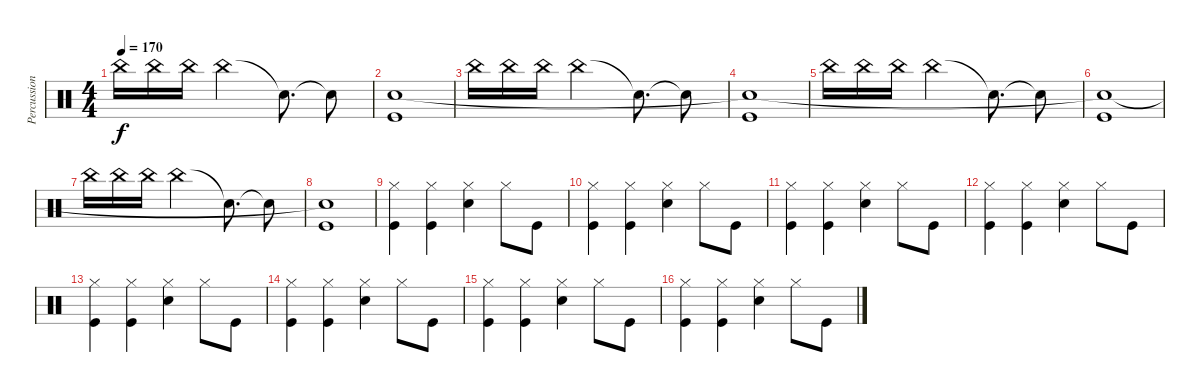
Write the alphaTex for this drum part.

\track ("Percussion" "Percussion") {instrument percussion}
\staff {score}
\articulation defaults
\ts (4 4)
\tempo 170
\clef neutral
\ks c "China (hit)".16{dy f} "China (hit)".16 "China (hit)".16 "China (hit)".2 "Snare (hit)"{t}.8{d} "Snare (hit)"{t}.8
|
("Kick (hit)" "Snare (hit)"{t}).1 |
"China (hit)".16 "China (hit)".16 "China (hit)".16 "China (hit)".2 "Snare (hit)"{t}.8{d} "Snare (hit)"{t}.8 |
("Kick (hit)" "Snare (hit)"{t}).1 |
"China (hit)".16 "China (hit)".16 "China (hit)".16 "China (hit)".2 "Snare (hit)"{t}.8{d} "Snare (hit)"{t}.8 |
("Kick (hit)" "Snare (hit)"{t}).1 |
"China (hit)".16 "China (hit)".16 "China (hit)".16 "China (hit)".2 "Snare (hit)"{t}.8{d} "Snare (hit)"{t}.8 |
("Kick (hit)" "Snare (hit)"{t}).1 |
("Hi-Hat (closed)" "Kick (hit)").4 ("Hi-Hat (closed)" "Kick (hit)").4 ("Hi-Hat (closed)" "Snare (hit) 2").4 "Hi-Hat (closed)".8 "Kick (hit)".8 |
("Hi-Hat (closed)" "Kick (hit)").4 ("Hi-Hat (closed)" "Kick (hit)").4 ("Hi-Hat (closed)" "Snare (hit) 2").4 "Hi-Hat (closed)".8 "Kick (hit)".8 |
("Hi-Hat (closed)" "Kick (hit)").4 ("Hi-Hat (closed)" "Kick (hit)").4 ("Hi-Hat (closed)" "Snare (hit) 2").4 "Hi-Hat (closed)".8 "Kick (hit)".8 |
("Hi-Hat (closed)" "Kick (hit)").4 ("Hi-Hat (closed)" "Kick (hit)").4 ("Hi-Hat (closed)" "Snare (hit) 2").4 "Hi-Hat (closed)".8 "Kick (hit)".8 |
("Hi-Hat (closed)" "Kick (hit)").4 ("Hi-Hat (closed)" "Kick (hit)").4 ("Hi-Hat (closed)" "Snare (hit) 2").4 "Hi-Hat (closed)".8 "Kick (hit)".8 |
("Hi-Hat (closed)" "Kick (hit)").4 ("Hi-Hat (closed)" "Kick (hit)").4 ("Hi-Hat (closed)" "Snare (hit) 2").4 "Hi-Hat (closed)".8 "Kick (hit)".8 |
("Hi-Hat (closed)" "Kick (hit)").4 ("Hi-Hat (closed)" "Kick (hit)").4 ("Hi-Hat (closed)" "Snare (hit) 2").4 "Hi-Hat (closed)".8 "Kick (hit)".8 |
("Hi-Hat (closed)" "Kick (hit)").4 ("Hi-Hat (closed)" "Kick (hit)").4 ("Hi-Hat (closed)" "Snare (hit) 2").4 "Hi-Hat (closed)".8 "Kick (hit)".8
